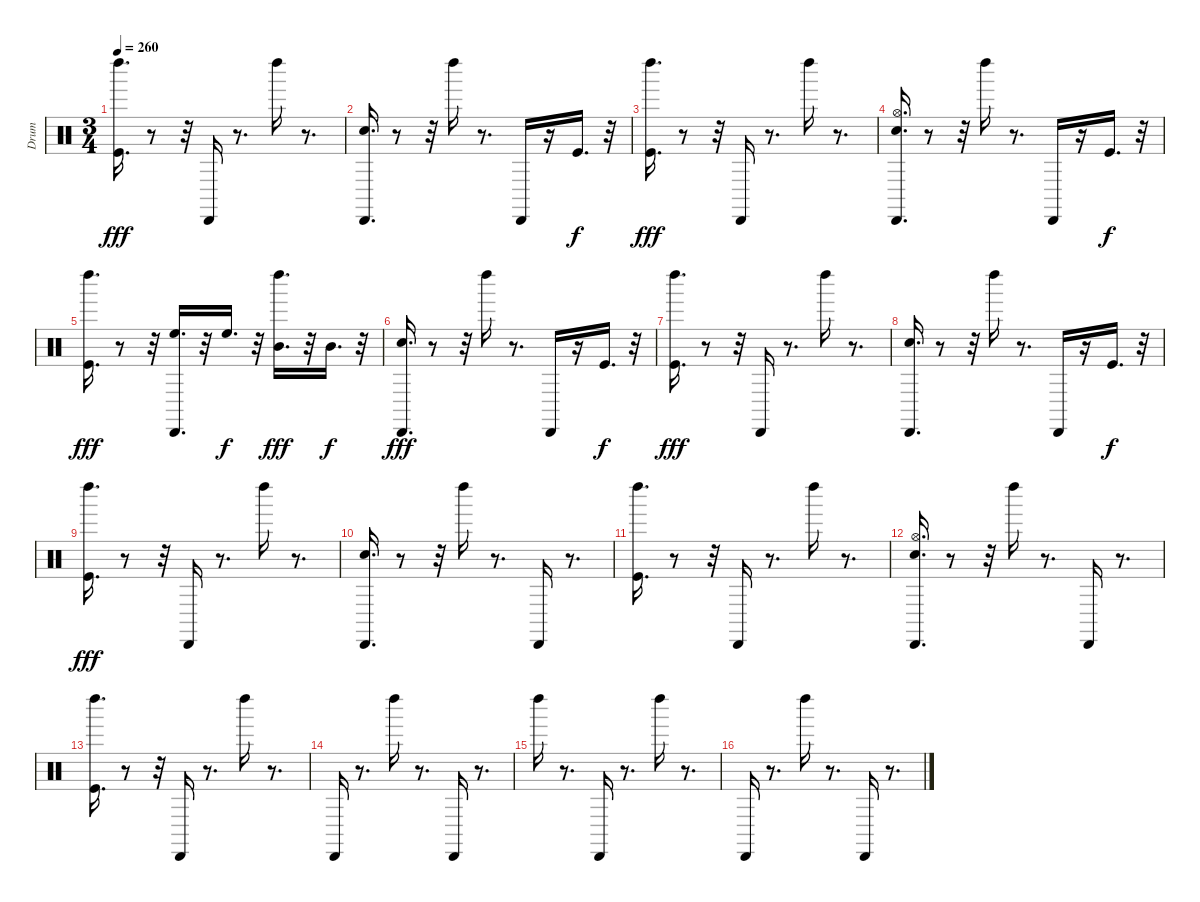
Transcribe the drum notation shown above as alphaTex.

\track ("Drum" "Drum") {instrument percussion}
\staff {score}
\articulation defaults
\ts (3 4)
\tempo 260
\clef neutral
\ks c
("Left Maraca (hit)" "Kick (hit)").16{d dy fff} r.8 r.32 "Cabasa (hit)".16 r.8{d} "Left Maraca (hit)".16 r.8{d} |
("Cabasa (hit)" "Electric Snare (hit)").16{d} r.8 r.32 "Left Maraca (hit)".16 r.8{d} "Cabasa (hit)".16 r.16 "Kick (hit)".16{d dy f} r.32 |
("Left Maraca (hit)" "Kick (hit)").16{d dy fff} r.8 r.32 "Cabasa (hit)".16 r.8{d} "Left Maraca (hit)".16 r.8{d} |
("Cabasa (hit)" "Electric Snare (hit)" "Hi-Hat (open)").16{d} r.8 r.32 "Left Maraca (hit)".16 r.8{d} "Cabasa (hit)".16 r.16 "Kick (hit)".16{d dy f} r.32 |
("Left Maraca (hit)" "Kick (hit)").16{d dy fff} r.8 r.32 ("Cabasa (hit)" "High Floor Tom (hit)").16{d} r.32 "High Floor Tom (hit)".16{d dy f} r.32 ("Mid Tom (hit)" "Left Maraca (hit)").16{d dy fff} r.32 "Mid Tom (hit)".16{d dy f} r.32 |
("Cabasa (hit)" "Electric Snare (hit)").16{d dy fff} r.8 r.32 "Left Maraca (hit)".16 r.8{d} "Cabasa (hit)".16 r.16 "Kick (hit)".16{d dy f} r.32 |
("Left Maraca (hit)" "Kick (hit)").16{d dy fff} r.8 r.32 "Cabasa (hit)".16 r.8{d} "Left Maraca (hit)".16 r.8{d} |
("Cabasa (hit)" "Electric Snare (hit)").16{d} r.8 r.32 "Left Maraca (hit)".16 r.8{d} "Cabasa (hit)".16 r.16 "Kick (hit)".16{d dy f} r.32 |
("Left Maraca (hit)" "Kick (hit)").16{d dy fff} r.8 r.32 "Cabasa (hit)".16 r.8{d} "Left Maraca (hit)".16 r.8{d} |
("Cabasa (hit)" "Electric Snare (hit)").16{d} r.8 r.32 "Left Maraca (hit)".16 r.8{d} "Cabasa (hit)".16 r.8{d} |
("Left Maraca (hit)" "Kick (hit)").16{d} r.8 r.32 "Cabasa (hit)".16 r.8{d} "Left Maraca (hit)".16 r.8{d} |
("Cabasa (hit)" "Electric Snare (hit)" "Hi-Hat (open)").16{d} r.8 r.32 "Left Maraca (hit)".16 r.8{d} "Cabasa (hit)".16 r.8{d} |
("Left Maraca (hit)" "Kick (hit)").16{d} r.8 r.32 "Cabasa (hit)".16 r.8{d} "Left Maraca (hit)".16 r.8{d} |
"Cabasa (hit)".16 r.8{d} "Left Maraca (hit)".16 r.8{d} "Cabasa (hit)".16 r.8{d} |
"Left Maraca (hit)".16 r.8{d} "Cabasa (hit)".16 r.8{d} "Left Maraca (hit)".16 r.8{d} |
"Cabasa (hit)".16 r.8{d} "Left Maraca (hit)".16 r.8{d} "Cabasa (hit)".16 r.8{d}
